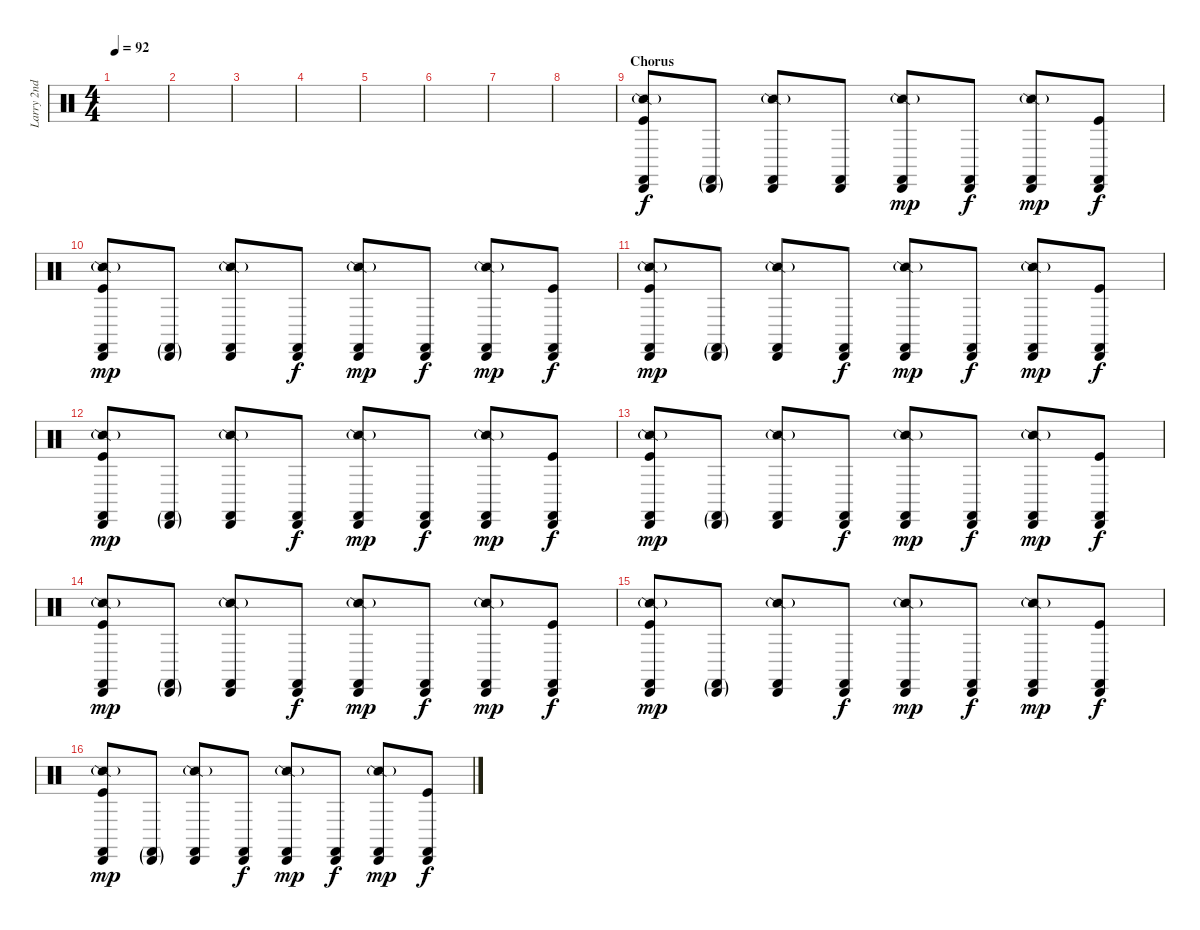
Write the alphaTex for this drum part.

\track ("Larry 2nd" "Larry 2nd") {instrument percussion}
\staff {score}
\articulation defaults
\ts (4 4)
\tempo 92
\clef neutral
\ks c
|
|
|
|
|
|
|
|
\section ("" "Chorus")
("Snare (side stick) 2"{g} "Castanets (hit)" "Cabasa (hit)" "Kick (hit)").8 ("Castanets (hit)"{g} "Cabasa (hit)"{g}).8 ("Snare (side stick) 2"{g} "Castanets (hit)" "Cabasa (hit)").8 ("Castanets (hit)" "Cabasa (hit)").8{dy f} ("Snare (side stick) 2"{g} "Castanets (hit)" "Cabasa (hit)").8{dy mp} ("Castanets (hit)" "Cabasa (hit)").8{dy f} ("Snare (side stick) 2"{g} "Castanets (hit)" "Cabasa (hit)").8{dy mp} ("Castanets (hit)" "Cabasa (hit)" "Kick (hit)").8{dy f} |
("Snare (side stick) 2"{g} "Castanets (hit)" "Cabasa (hit)" "Kick (hit)").8{dy mp} ("Castanets (hit)"{g} "Cabasa (hit)"{g}).8 ("Snare (side stick) 2"{g} "Castanets (hit)" "Cabasa (hit)").8 ("Castanets (hit)" "Cabasa (hit)").8{dy f} ("Snare (side stick) 2"{g} "Castanets (hit)" "Cabasa (hit)").8{dy mp} ("Castanets (hit)" "Cabasa (hit)").8{dy f} ("Snare (side stick) 2"{g} "Castanets (hit)" "Cabasa (hit)").8{dy mp} ("Castanets (hit)" "Cabasa (hit)" "Kick (hit)").8{dy f} |
("Snare (side stick) 2"{g} "Castanets (hit)" "Cabasa (hit)" "Kick (hit)").8{dy mp} ("Castanets (hit)"{g} "Cabasa (hit)"{g}).8 ("Snare (side stick) 2"{g} "Castanets (hit)" "Cabasa (hit)").8 ("Castanets (hit)" "Cabasa (hit)").8{dy f} ("Snare (side stick) 2"{g} "Castanets (hit)" "Cabasa (hit)").8{dy mp} ("Castanets (hit)" "Cabasa (hit)").8{dy f} ("Snare (side stick) 2"{g} "Castanets (hit)" "Cabasa (hit)").8{dy mp} ("Castanets (hit)" "Cabasa (hit)" "Kick (hit)").8{dy f} |
("Snare (side stick) 2"{g} "Castanets (hit)" "Cabasa (hit)" "Kick (hit)").8{dy mp} ("Castanets (hit)"{g} "Cabasa (hit)"{g}).8 ("Snare (side stick) 2"{g} "Castanets (hit)" "Cabasa (hit)").8 ("Castanets (hit)" "Cabasa (hit)").8{dy f} ("Snare (side stick) 2"{g} "Castanets (hit)" "Cabasa (hit)").8{dy mp} ("Castanets (hit)" "Cabasa (hit)").8{dy f} ("Snare (side stick) 2"{g} "Castanets (hit)" "Cabasa (hit)").8{dy mp} ("Castanets (hit)" "Cabasa (hit)" "Kick (hit)").8{dy f} |
("Snare (side stick) 2"{g} "Castanets (hit)" "Cabasa (hit)" "Kick (hit)").8{dy mp} ("Castanets (hit)"{g} "Cabasa (hit)"{g}).8 ("Snare (side stick) 2"{g} "Castanets (hit)" "Cabasa (hit)").8 ("Castanets (hit)" "Cabasa (hit)").8{dy f} ("Snare (side stick) 2"{g} "Castanets (hit)" "Cabasa (hit)").8{dy mp} ("Castanets (hit)" "Cabasa (hit)").8{dy f} ("Snare (side stick) 2"{g} "Castanets (hit)" "Cabasa (hit)").8{dy mp} ("Castanets (hit)" "Cabasa (hit)" "Kick (hit)").8{dy f} |
("Snare (side stick) 2"{g} "Castanets (hit)" "Cabasa (hit)" "Kick (hit)").8{dy mp} ("Castanets (hit)"{g} "Cabasa (hit)"{g}).8 ("Snare (side stick) 2"{g} "Castanets (hit)" "Cabasa (hit)").8 ("Castanets (hit)" "Cabasa (hit)").8{dy f} ("Snare (side stick) 2"{g} "Castanets (hit)" "Cabasa (hit)").8{dy mp} ("Castanets (hit)" "Cabasa (hit)").8{dy f} ("Snare (side stick) 2"{g} "Castanets (hit)" "Cabasa (hit)").8{dy mp} ("Castanets (hit)" "Cabasa (hit)" "Kick (hit)").8{dy f} |
("Snare (side stick) 2"{g} "Castanets (hit)" "Cabasa (hit)" "Kick (hit)").8{dy mp} ("Castanets (hit)"{g} "Cabasa (hit)"{g}).8 ("Snare (side stick) 2"{g} "Castanets (hit)" "Cabasa (hit)").8 ("Castanets (hit)" "Cabasa (hit)").8{dy f} ("Snare (side stick) 2"{g} "Castanets (hit)" "Cabasa (hit)").8{dy mp} ("Castanets (hit)" "Cabasa (hit)").8{dy f} ("Snare (side stick) 2"{g} "Castanets (hit)" "Cabasa (hit)").8{dy mp} ("Castanets (hit)" "Cabasa (hit)" "Kick (hit)").8{dy f} |
("Snare (side stick) 2"{g} "Castanets (hit)" "Cabasa (hit)" "Kick (hit)").8{dy mp} ("Castanets (hit)"{g} "Cabasa (hit)"{g}).8 ("Snare (side stick) 2"{g} "Castanets (hit)" "Cabasa (hit)").8 ("Castanets (hit)" "Cabasa (hit)").8{dy f} ("Snare (side stick) 2"{g} "Castanets (hit)" "Cabasa (hit)").8{dy mp} ("Castanets (hit)" "Cabasa (hit)").8{dy f} ("Snare (side stick) 2"{g} "Castanets (hit)" "Cabasa (hit)").8{dy mp} ("Castanets (hit)" "Cabasa (hit)" "Kick (hit)").8{dy f}
